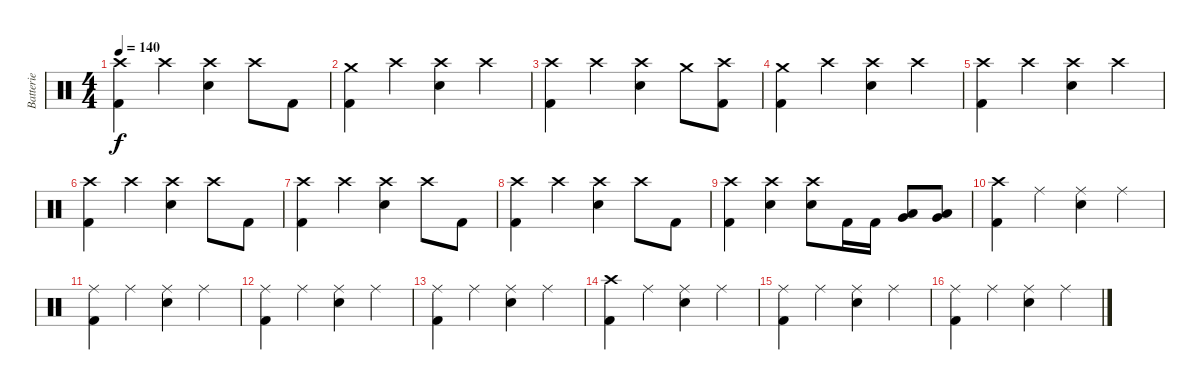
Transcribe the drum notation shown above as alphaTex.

\track ("Batterie" "Batterie") {instrument percussion}
\staff {score}
\articulation defaults
\ts (4 4)
\tempo 140
\clef neutral
\ks c
("Crash high (hit)" "Kick (hit) 2").4{dy f} "Crash high (hit)".4 ("Crash high (hit)" "Electric Snare (hit)").4 "Crash high (hit)".8 "Kick (hit) 2".8 |
("Crash medium (hit)" "Kick (hit) 2").4 "Crash high (hit)".4 ("Crash high (hit)" "Electric Snare (hit)").4 "Crash high (hit)".4 |
("Crash high (hit)" "Kick (hit) 2").4 "Crash high (hit)".4 ("Crash high (hit)" "Electric Snare (hit)").4 "Crash medium (hit)".8 ("Crash high (hit)" "Kick (hit) 2").8 |
("Crash medium (hit)" "Kick (hit) 2").4 "Crash high (hit)".4 ("Crash high (hit)" "Electric Snare (hit)").4 "Crash high (hit)".4 |
("Crash high (hit)" "Kick (hit) 2").4 "Crash high (hit)".4 ("Crash high (hit)" "Electric Snare (hit)").4 "Crash high (hit)".4 |
("Crash high (hit)" "Kick (hit) 2").4 "Crash high (hit)".4 ("Crash high (hit)" "Electric Snare (hit)").4 "Crash high (hit)".8 "Kick (hit) 2".8 |
("Crash high (hit)" "Kick (hit) 2").4 "Crash high (hit)".4 ("Crash high (hit)" "Electric Snare (hit)").4 "Crash high (hit)".8 "Kick (hit) 2".8 |
("Crash high (hit)" "Kick (hit) 2").4 "Crash high (hit)".4 ("Crash high (hit)" "Electric Snare (hit)").4 "Crash high (hit)".8 "Kick (hit) 2".8 |
("Crash high (hit)" "Kick (hit) 2").4 ("Crash high (hit)" "Electric Snare (hit)").4 ("Crash high (hit)" "Electric Snare (hit)").8 "Kick (hit) 2".16 "Kick (hit) 2".16 ("Low Tom (hit)" "Very Low Tom (hit)").8{bu 60} ("Very Low Tom (hit)" "Low Floor Tom (hit)").8{bu 60} |
("Crash high (hit)" "Kick (hit) 2").4 "Ride (middle)".4 ("Ride (middle)" "Electric Snare (hit)").4 "Ride (middle)".4 |
("Ride (middle)" "Kick (hit) 2").4 "Ride (middle)".4 ("Ride (middle)" "Electric Snare (hit)").4 "Ride (middle)".4 |
("Ride (middle)" "Kick (hit) 2").4 "Ride (middle)".4 ("Ride (middle)" "Electric Snare (hit)").4 "Ride (middle)".4 |
("Ride (middle)" "Kick (hit) 2").4 "Ride (middle)".4 ("Ride (middle)" "Electric Snare (hit)").4 "Ride (middle)".4 |
("Crash high (hit)" "Kick (hit) 2").4 "Ride (middle)".4 ("Ride (middle)" "Electric Snare (hit)").4 "Ride (middle)".4 |
("Ride (middle)" "Kick (hit) 2").4 "Ride (middle)".4 ("Ride (middle)" "Electric Snare (hit)").4 "Ride (middle)".4 |
("Ride (middle)" "Kick (hit) 2").4 "Ride (middle)".4 ("Ride (middle)" "Electric Snare (hit)").4 "Ride (middle)".4
